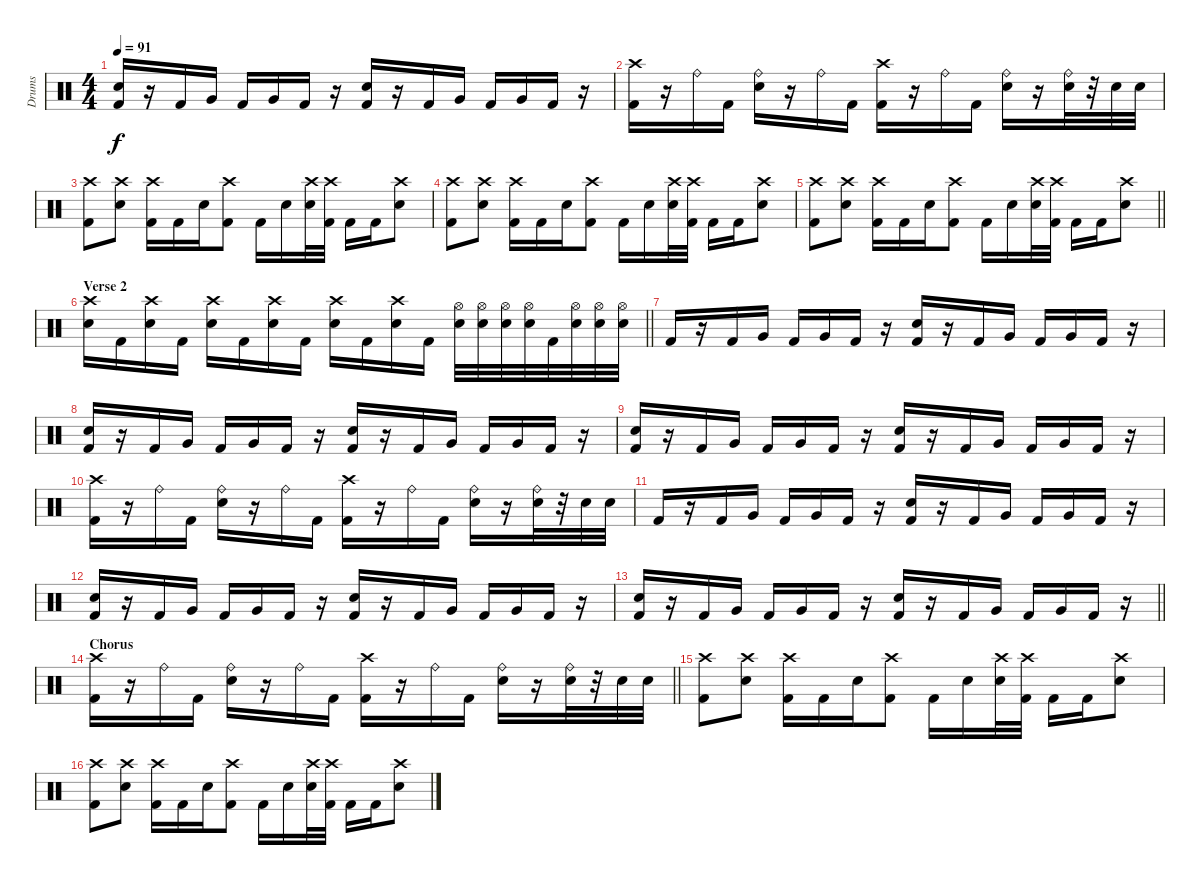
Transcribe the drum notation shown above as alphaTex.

\track ("Drums" "Drums") {instrument percussion}
\staff {score}
\articulation defaults
\ts (4 4)
\tempo 91
\clef neutral
\ks c
("Electric Snare (hit)" "Kick (hit) 2").16{dy f} r.16 "Kick (hit) 2".16 "Very Low Tom (hit)".16 "Kick (hit) 2".16 "Very Low Tom (hit)".16 "Kick (hit) 2".16 r.16 ("Electric Snare (hit)" "Kick (hit) 2").16 r.16 "Kick (hit) 2".16 "Very Low Tom (hit)".16 "Kick (hit) 2".16 "Very Low Tom (hit)".16 "Kick (hit) 2".16 r.16 |
("Crash high (hit)" "Kick (hit) 2").16 r.16 "Ride (bell)".16 "Kick (hit) 2".16 ("Ride (bell)" "Electric Snare (hit)").16 r.16 "Ride (bell)".16 "Kick (hit) 2".16 ("Crash high (hit)" "Kick (hit) 2").16 r.16 "Ride (bell)".16 "Kick (hit) 2".16 ("Ride (bell)" "Electric Snare (hit)").16 r.16 ("Ride (bell)" "Electric Snare (hit)").32 r.32 "Electric Snare (hit)".32 "Electric Snare (hit)".32 |
("Crash high (hit)" "Kick (hit) 2").8 ("Crash high (hit)" "Electric Snare (hit)").8 ("Crash high (hit)" "Kick (hit) 2").16 "Kick (hit) 2".16 "Electric Snare (hit)".16 ("Crash high (hit)" "Kick (hit) 2").8 "Kick (hit) 2".16 "Electric Snare (hit)".16 ("Crash high (hit)" "Electric Snare (hit)").32 ("Crash high (hit)" "Kick (hit) 2").32 "Kick (hit) 2".16 "Kick (hit) 2".16 ("Crash high (hit)" "Electric Snare (hit)").8 |
("Crash high (hit)" "Kick (hit) 2").8 ("Crash high (hit)" "Electric Snare (hit)").8 ("Crash high (hit)" "Kick (hit) 2").16 "Kick (hit) 2".16 "Electric Snare (hit)".16 ("Crash high (hit)" "Kick (hit) 2").8 "Kick (hit) 2".16 "Electric Snare (hit)".16 ("Crash high (hit)" "Electric Snare (hit)").32 ("Crash high (hit)" "Kick (hit) 2").32 "Kick (hit) 2".16 "Kick (hit) 2".16 ("Crash high (hit)" "Electric Snare (hit)").8 |
\barLineRight lightlight
("Crash high (hit)" "Kick (hit) 2").8 ("Crash high (hit)" "Electric Snare (hit)").8 ("Crash high (hit)" "Kick (hit) 2").16 "Kick (hit) 2".16 "Electric Snare (hit)".16 ("Crash high (hit)" "Kick (hit) 2").8 "Kick (hit) 2".16 "Electric Snare (hit)".16 ("Crash high (hit)" "Electric Snare (hit)").32 ("Crash high (hit)" "Kick (hit) 2").32 "Kick (hit) 2".16 "Kick (hit) 2".16 ("Crash high (hit)" "Electric Snare (hit)").8 |
\section ("" "Verse 2")
\barLineRight lightlight
("Crash high (hit)" "Electric Snare (hit)").16 "Kick (hit) 2".16 ("Crash high (hit)" "Electric Snare (hit)").16 "Kick (hit) 2".16 ("Crash high (hit)" "Electric Snare (hit)").16 "Kick (hit) 2".16 ("Crash high (hit)" "Electric Snare (hit)").16 "Kick (hit) 2".16 ("Crash high (hit)" "Electric Snare (hit)").16 "Kick (hit) 2".16 ("Crash high (hit)" "Electric Snare (hit)").16 "Kick (hit) 2".16 ("Hi-Hat (open)" "Electric Snare (hit)").32 ("Hi-Hat (open)" "Electric Snare (hit)").32 ("Hi-Hat (open)" "Electric Snare (hit)").32 ("Hi-Hat (open)" "Electric Snare (hit)").32 "Kick (hit) 2".32 ("Hi-Hat (open)" "Electric Snare (hit)").32 ("Hi-Hat (open)" "Electric Snare (hit)").32 ("Hi-Hat (open)" "Electric Snare (hit)").32 |
"Kick (hit) 2".16 r.16 "Kick (hit) 2".16 "Very Low Tom (hit)".16 "Kick (hit) 2".16 "Very Low Tom (hit)".16 "Kick (hit) 2".16 r.16 ("Electric Snare (hit)" "Kick (hit) 2").16 r.16 "Kick (hit) 2".16 "Very Low Tom (hit)".16 "Kick (hit) 2".16 "Very Low Tom (hit)".16 "Kick (hit) 2".16 r.16 |
("Electric Snare (hit)" "Kick (hit) 2").16 r.16 "Kick (hit) 2".16 "Very Low Tom (hit)".16 "Kick (hit) 2".16 "Very Low Tom (hit)".16 "Kick (hit) 2".16 r.16 ("Electric Snare (hit)" "Kick (hit) 2").16 r.16 "Kick (hit) 2".16 "Very Low Tom (hit)".16 "Kick (hit) 2".16 "Very Low Tom (hit)".16 "Kick (hit) 2".16 r.16 |
("Electric Snare (hit)" "Kick (hit) 2").16 r.16 "Kick (hit) 2".16 "Very Low Tom (hit)".16 "Kick (hit) 2".16 "Very Low Tom (hit)".16 "Kick (hit) 2".16 r.16 ("Electric Snare (hit)" "Kick (hit) 2").16 r.16 "Kick (hit) 2".16 "Very Low Tom (hit)".16 "Kick (hit) 2".16 "Very Low Tom (hit)".16 "Kick (hit) 2".16 r.16 |
("Crash high (hit)" "Kick (hit) 2").16 r.16 "Ride (bell)".16 "Kick (hit) 2".16 ("Ride (bell)" "Electric Snare (hit)").16 r.16 "Ride (bell)".16 "Kick (hit) 2".16 ("Crash high (hit)" "Kick (hit) 2").16 r.16 "Ride (bell)".16 "Kick (hit) 2".16 ("Ride (bell)" "Electric Snare (hit)").16 r.16 ("Ride (bell)" "Electric Snare (hit)").32 r.32 "Electric Snare (hit)".32 "Electric Snare (hit)".32 |
"Kick (hit) 2".16 r.16 "Kick (hit) 2".16 "Very Low Tom (hit)".16 "Kick (hit) 2".16 "Very Low Tom (hit)".16 "Kick (hit) 2".16 r.16 ("Electric Snare (hit)" "Kick (hit) 2").16 r.16 "Kick (hit) 2".16 "Very Low Tom (hit)".16 "Kick (hit) 2".16 "Very Low Tom (hit)".16 "Kick (hit) 2".16 r.16 |
("Electric Snare (hit)" "Kick (hit) 2").16 r.16 "Kick (hit) 2".16 "Very Low Tom (hit)".16 "Kick (hit) 2".16 "Very Low Tom (hit)".16 "Kick (hit) 2".16 r.16 ("Electric Snare (hit)" "Kick (hit) 2").16 r.16 "Kick (hit) 2".16 "Very Low Tom (hit)".16 "Kick (hit) 2".16 "Very Low Tom (hit)".16 "Kick (hit) 2".16 r.16 |
\barLineRight lightlight
("Electric Snare (hit)" "Kick (hit) 2").16 r.16 "Kick (hit) 2".16 "Very Low Tom (hit)".16 "Kick (hit) 2".16 "Very Low Tom (hit)".16 "Kick (hit) 2".16 r.16 ("Electric Snare (hit)" "Kick (hit) 2").16 r.16 "Kick (hit) 2".16 "Very Low Tom (hit)".16 "Kick (hit) 2".16 "Very Low Tom (hit)".16 "Kick (hit) 2".16 r.16 |
\section ("" "Chorus")
\barLineRight lightlight
("Crash high (hit)" "Kick (hit) 2").16 r.16 "Ride (bell)".16 "Kick (hit) 2".16 ("Ride (bell)" "Electric Snare (hit)").16 r.16 "Ride (bell)".16 "Kick (hit) 2".16 ("Crash high (hit)" "Kick (hit) 2").16 r.16 "Ride (bell)".16 "Kick (hit) 2".16 ("Ride (bell)" "Electric Snare (hit)").16 r.16 ("Ride (bell)" "Electric Snare (hit)").32 r.32 "Electric Snare (hit)".32 "Electric Snare (hit)".32 |
("Crash high (hit)" "Kick (hit) 2").8 ("Crash high (hit)" "Electric Snare (hit)").8 ("Crash high (hit)" "Kick (hit) 2").16 "Kick (hit) 2".16 "Electric Snare (hit)".16 ("Crash high (hit)" "Kick (hit) 2").8 "Kick (hit) 2".16 "Electric Snare (hit)".16 ("Crash high (hit)" "Electric Snare (hit)").32 ("Crash high (hit)" "Kick (hit) 2").32 "Kick (hit) 2".16 "Kick (hit) 2".16 ("Crash high (hit)" "Electric Snare (hit)").8 |
("Crash high (hit)" "Kick (hit) 2").8 ("Crash high (hit)" "Electric Snare (hit)").8 ("Crash high (hit)" "Kick (hit) 2").16 "Kick (hit) 2".16 "Electric Snare (hit)".16 ("Crash high (hit)" "Kick (hit) 2").8 "Kick (hit) 2".16 "Electric Snare (hit)".16 ("Crash high (hit)" "Electric Snare (hit)").32 ("Crash high (hit)" "Kick (hit) 2").32 "Kick (hit) 2".16 "Kick (hit) 2".16 ("Crash high (hit)" "Electric Snare (hit)").8
